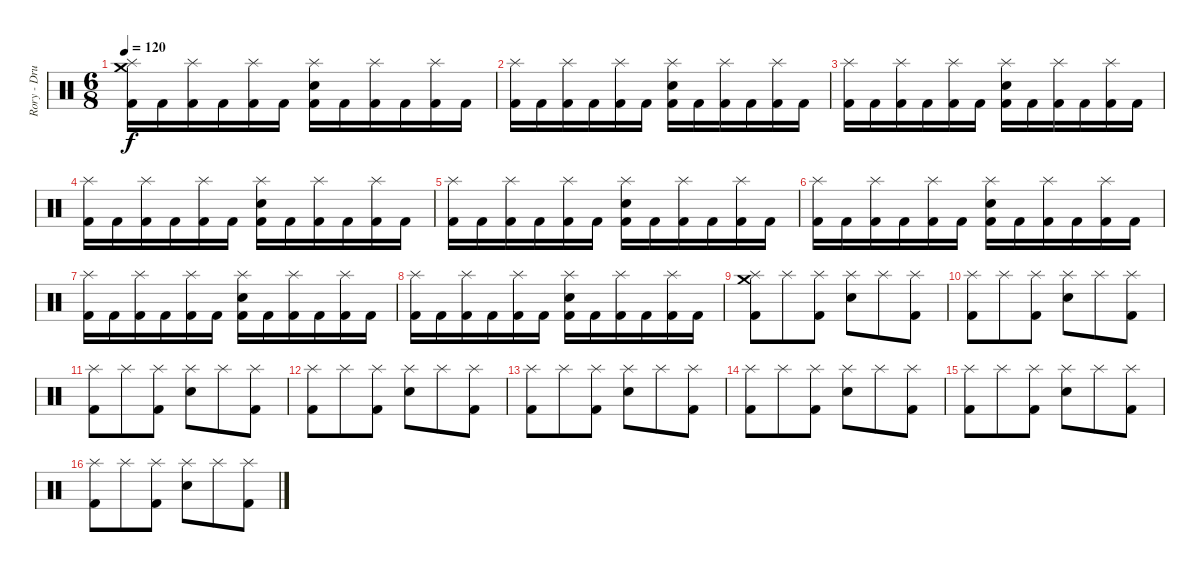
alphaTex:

\track ("Rory - Drums" "Rory - Dru") {instrument percussion}
\staff {score}
\articulation defaults
\ts (6 8)
\tempo 120
\clef neutral
\ks c
("Kick (hit) 2" "Crash medium (hit)" "Splash (hit)").16{dy f} "Kick (hit) 2".16 ("Kick (hit) 2" "Splash (hit)").16 "Kick (hit) 2".16 ("Kick (hit) 2" "Splash (hit)").16 "Kick (hit) 2".16 ("Kick (hit) 2" "Electric Snare (hit)" "Splash (hit)").16 "Kick (hit) 2".16 ("Kick (hit) 2" "Splash (hit)").16 "Kick (hit) 2".16 ("Kick (hit) 2" "Splash (hit)").16 "Kick (hit) 2".16 |
("Kick (hit) 2" "Splash (hit)").16 "Kick (hit) 2".16 ("Kick (hit) 2" "Splash (hit)").16 "Kick (hit) 2".16 ("Kick (hit) 2" "Splash (hit)").16 "Kick (hit) 2".16 ("Kick (hit) 2" "Electric Snare (hit)" "Splash (hit)").16 "Kick (hit) 2".16 ("Kick (hit) 2" "Splash (hit)").16 "Kick (hit) 2".16 ("Kick (hit) 2" "Splash (hit)").16 "Kick (hit) 2".16 |
("Kick (hit) 2" "Splash (hit)").16 "Kick (hit) 2".16 ("Kick (hit) 2" "Splash (hit)").16 "Kick (hit) 2".16 ("Kick (hit) 2" "Splash (hit)").16 "Kick (hit) 2".16 ("Kick (hit) 2" "Electric Snare (hit)" "Splash (hit)").16 "Kick (hit) 2".16 ("Kick (hit) 2" "Splash (hit)").16 "Kick (hit) 2".16 ("Kick (hit) 2" "Splash (hit)").16 "Kick (hit) 2".16 |
("Kick (hit) 2" "Splash (hit)").16 "Kick (hit) 2".16 ("Kick (hit) 2" "Splash (hit)").16 "Kick (hit) 2".16 ("Kick (hit) 2" "Splash (hit)").16 "Kick (hit) 2".16 ("Kick (hit) 2" "Electric Snare (hit)" "Splash (hit)").16 "Kick (hit) 2".16 ("Kick (hit) 2" "Splash (hit)").16 "Kick (hit) 2".16 ("Kick (hit) 2" "Splash (hit)").16 "Kick (hit) 2".16 |
("Kick (hit) 2" "Splash (hit)").16 "Kick (hit) 2".16 ("Kick (hit) 2" "Splash (hit)").16 "Kick (hit) 2".16 ("Kick (hit) 2" "Splash (hit)").16 "Kick (hit) 2".16 ("Kick (hit) 2" "Electric Snare (hit)" "Splash (hit)").16 "Kick (hit) 2".16 ("Kick (hit) 2" "Splash (hit)").16 "Kick (hit) 2".16 ("Kick (hit) 2" "Splash (hit)").16 "Kick (hit) 2".16 |
("Kick (hit) 2" "Splash (hit)").16 "Kick (hit) 2".16 ("Kick (hit) 2" "Splash (hit)").16 "Kick (hit) 2".16 ("Kick (hit) 2" "Splash (hit)").16 "Kick (hit) 2".16 ("Kick (hit) 2" "Electric Snare (hit)" "Splash (hit)").16 "Kick (hit) 2".16 ("Kick (hit) 2" "Splash (hit)").16 "Kick (hit) 2".16 ("Kick (hit) 2" "Splash (hit)").16 "Kick (hit) 2".16 |
("Kick (hit) 2" "Splash (hit)").16 "Kick (hit) 2".16 ("Kick (hit) 2" "Splash (hit)").16 "Kick (hit) 2".16 ("Kick (hit) 2" "Splash (hit)").16 "Kick (hit) 2".16 ("Kick (hit) 2" "Electric Snare (hit)" "Splash (hit)").16 "Kick (hit) 2".16 ("Kick (hit) 2" "Splash (hit)").16 "Kick (hit) 2".16 ("Kick (hit) 2" "Splash (hit)").16 "Kick (hit) 2".16 |
("Kick (hit) 2" "Splash (hit)").16 "Kick (hit) 2".16 ("Kick (hit) 2" "Splash (hit)").16 "Kick (hit) 2".16 ("Kick (hit) 2" "Splash (hit)").16 "Kick (hit) 2".16 ("Kick (hit) 2" "Electric Snare (hit)" "Splash (hit)").16 "Kick (hit) 2".16 ("Kick (hit) 2" "Splash (hit)").16 "Kick (hit) 2".16 ("Kick (hit) 2" "Splash (hit)").16 "Kick (hit) 2".16 |
("Kick (hit) 2" "Splash (hit)" "Crash medium (hit)").8 "Splash (hit)".8 ("Kick (hit) 2" "Splash (hit)").8 ("Electric Snare (hit)" "Splash (hit)").8 "Splash (hit)".8 ("Kick (hit) 2" "Splash (hit)").8 |
("Kick (hit) 2" "Splash (hit)").8 "Splash (hit)".8 ("Kick (hit) 2" "Splash (hit)").8 ("Electric Snare (hit)" "Splash (hit)").8 "Splash (hit)".8 ("Kick (hit) 2" "Splash (hit)").8 |
("Kick (hit) 2" "Splash (hit)").8 "Splash (hit)".8 ("Kick (hit) 2" "Splash (hit)").8 ("Electric Snare (hit)" "Splash (hit)").8 "Splash (hit)".8 ("Kick (hit) 2" "Splash (hit)").8 |
("Kick (hit) 2" "Splash (hit)").8 "Splash (hit)".8 ("Kick (hit) 2" "Splash (hit)").8 ("Electric Snare (hit)" "Splash (hit)").8 "Splash (hit)".8 ("Kick (hit) 2" "Splash (hit)").8 |
("Kick (hit) 2" "Splash (hit)").8 "Splash (hit)".8 ("Kick (hit) 2" "Splash (hit)").8 ("Electric Snare (hit)" "Splash (hit)").8 "Splash (hit)".8 ("Kick (hit) 2" "Splash (hit)").8 |
("Kick (hit) 2" "Splash (hit)").8 "Splash (hit)".8 ("Kick (hit) 2" "Splash (hit)").8 ("Electric Snare (hit)" "Splash (hit)").8 "Splash (hit)".8 ("Kick (hit) 2" "Splash (hit)").8 |
("Kick (hit) 2" "Splash (hit)").8 "Splash (hit)".8 ("Kick (hit) 2" "Splash (hit)").8 ("Electric Snare (hit)" "Splash (hit)").8 "Splash (hit)".8 ("Kick (hit) 2" "Splash (hit)").8 |
("Kick (hit) 2" "Splash (hit)").8 "Splash (hit)".8 ("Kick (hit) 2" "Splash (hit)").8 ("Electric Snare (hit)" "Splash (hit)").8 "Splash (hit)".8 ("Kick (hit) 2" "Splash (hit)").8
